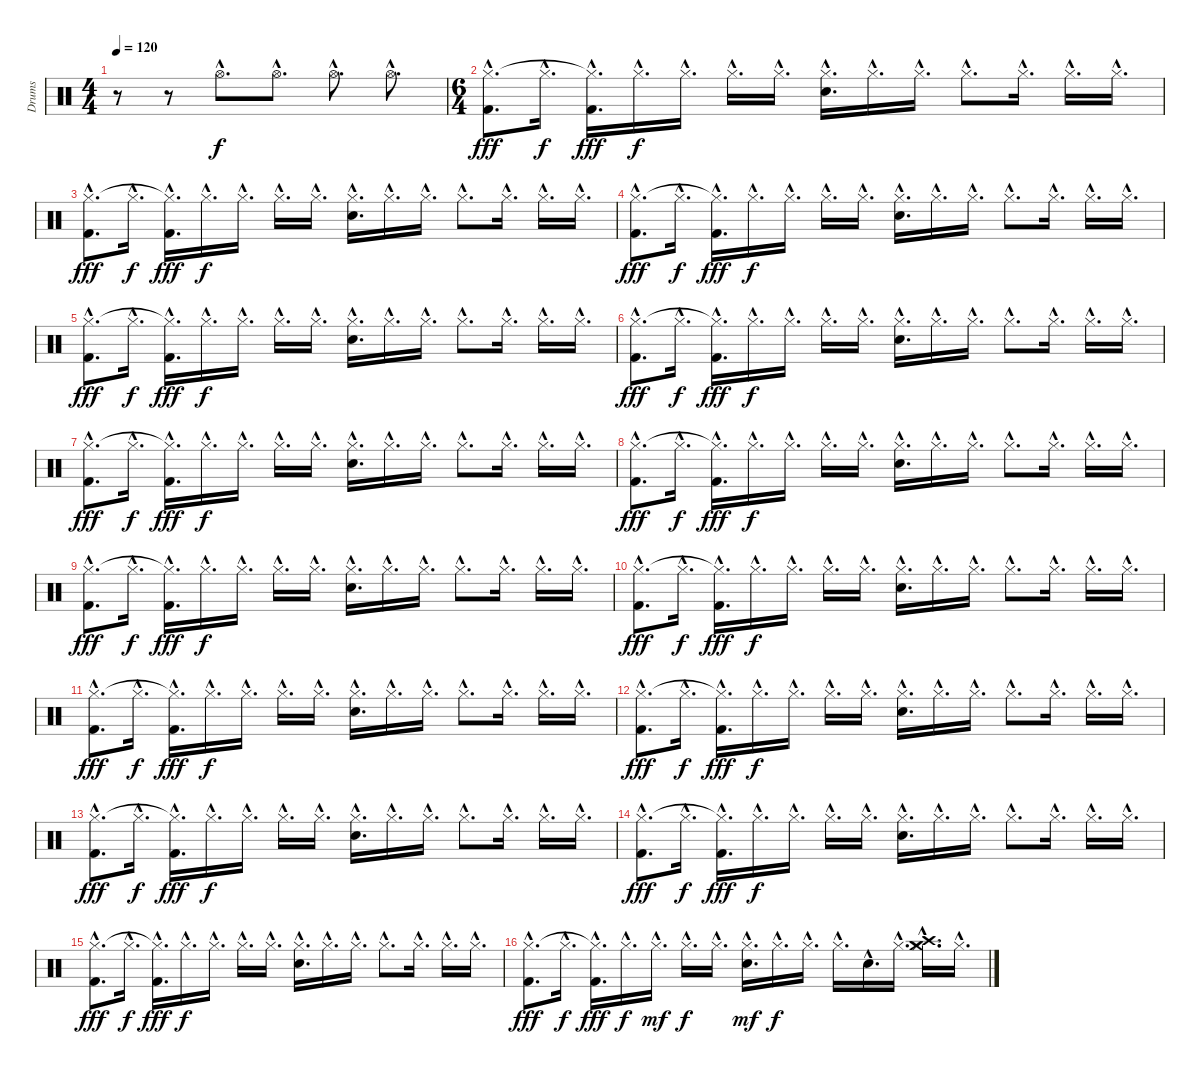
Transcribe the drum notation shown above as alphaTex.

\track ("Drums" "Drums") {instrument percussion}
\staff {score}
\articulation defaults
\ts (4 4)
\tempo 120
\clef neutral
\ks c
r.8{dy f} r.8 "Hi-Hat (open)"{hac}.8{d} "Hi-Hat (open)"{hac}.8{d} "Hi-Hat (open)"{hac}.8{d} "Hi-Hat (open)"{hac}.8{d} |
\ts (6 4)
("Kick (hit) 2"{hac} "Hi-Hat (closed)"{hac}).8{d dy fff} "Hi-Hat (closed)"{hac}.16{d dy f} ("Kick (hit) 2"{hac} "Hi-Hat (closed)"{hac t}).16{d dy fff} "Hi-Hat (closed)"{hac}.16{d dy f} "Hi-Hat (closed)"{hac}.16{d} "Hi-Hat (closed)"{hac}.16{d} "Hi-Hat (closed)"{hac}.16{d} ("Electric Snare (hit)"{hac} "Hi-Hat (closed)"{hac}).16{d} "Hi-Hat (closed)"{hac}.16{d} "Hi-Hat (closed)"{hac}.16{d} "Hi-Hat (closed)"{hac}.8{d} "Hi-Hat (closed)"{hac}.16{d} "Hi-Hat (closed)"{hac}.16{d} "Hi-Hat (closed)"{hac}.16{d} |
("Kick (hit) 2"{hac} "Hi-Hat (closed)"{hac}).8{d dy fff} "Hi-Hat (closed)"{hac}.16{d dy f} ("Kick (hit) 2"{hac} "Hi-Hat (closed)"{hac t}).16{d dy fff} "Hi-Hat (closed)"{hac}.16{d dy f} "Hi-Hat (closed)"{hac}.16{d} "Hi-Hat (closed)"{hac}.16{d} "Hi-Hat (closed)"{hac}.16{d} ("Electric Snare (hit)"{hac} "Hi-Hat (closed)"{hac}).16{d} "Hi-Hat (closed)"{hac}.16{d} "Hi-Hat (closed)"{hac}.16{d} "Hi-Hat (closed)"{hac}.8{d} "Hi-Hat (closed)"{hac}.16{d} "Hi-Hat (closed)"{hac}.16{d} "Hi-Hat (closed)"{hac}.16{d} |
("Kick (hit) 2"{hac} "Hi-Hat (closed)"{hac}).8{d dy fff} "Hi-Hat (closed)"{hac}.16{d dy f} ("Kick (hit) 2"{hac} "Hi-Hat (closed)"{hac t}).16{d dy fff} "Hi-Hat (closed)"{hac}.16{d dy f} "Hi-Hat (closed)"{hac}.16{d} "Hi-Hat (closed)"{hac}.16{d} "Hi-Hat (closed)"{hac}.16{d} ("Electric Snare (hit)"{hac} "Hi-Hat (closed)"{hac}).16{d} "Hi-Hat (closed)"{hac}.16{d} "Hi-Hat (closed)"{hac}.16{d} "Hi-Hat (closed)"{hac}.8{d} "Hi-Hat (closed)"{hac}.16{d} "Hi-Hat (closed)"{hac}.16{d} "Hi-Hat (closed)"{hac}.16{d} |
("Kick (hit) 2"{hac} "Hi-Hat (closed)"{hac}).8{d dy fff} "Hi-Hat (closed)"{hac}.16{d dy f} ("Kick (hit) 2"{hac} "Hi-Hat (closed)"{hac t}).16{d dy fff} "Hi-Hat (closed)"{hac}.16{d dy f} "Hi-Hat (closed)"{hac}.16{d} "Hi-Hat (closed)"{hac}.16{d} "Hi-Hat (closed)"{hac}.16{d} ("Electric Snare (hit)"{hac} "Hi-Hat (closed)"{hac}).16{d} "Hi-Hat (closed)"{hac}.16{d} "Hi-Hat (closed)"{hac}.16{d} "Hi-Hat (closed)"{hac}.8{d} "Hi-Hat (closed)"{hac}.16{d} "Hi-Hat (closed)"{hac}.16{d} "Hi-Hat (closed)"{hac}.16{d} |
("Kick (hit) 2"{hac} "Hi-Hat (closed)"{hac}).8{d dy fff} "Hi-Hat (closed)"{hac}.16{d dy f} ("Kick (hit) 2"{hac} "Hi-Hat (closed)"{hac t}).16{d dy fff} "Hi-Hat (closed)"{hac}.16{d dy f} "Hi-Hat (closed)"{hac}.16{d} "Hi-Hat (closed)"{hac}.16{d} "Hi-Hat (closed)"{hac}.16{d} ("Electric Snare (hit)"{hac} "Hi-Hat (closed)"{hac}).16{d} "Hi-Hat (closed)"{hac}.16{d} "Hi-Hat (closed)"{hac}.16{d} "Hi-Hat (closed)"{hac}.8{d} "Hi-Hat (closed)"{hac}.16{d} "Hi-Hat (closed)"{hac}.16{d} "Hi-Hat (closed)"{hac}.16{d} |
("Kick (hit) 2"{hac} "Hi-Hat (closed)"{hac}).8{d dy fff} "Hi-Hat (closed)"{hac}.16{d dy f} ("Kick (hit) 2"{hac} "Hi-Hat (closed)"{hac t}).16{d dy fff} "Hi-Hat (closed)"{hac}.16{d dy f} "Hi-Hat (closed)"{hac}.16{d} "Hi-Hat (closed)"{hac}.16{d} "Hi-Hat (closed)"{hac}.16{d} ("Electric Snare (hit)"{hac} "Hi-Hat (closed)"{hac}).16{d} "Hi-Hat (closed)"{hac}.16{d} "Hi-Hat (closed)"{hac}.16{d} "Hi-Hat (closed)"{hac}.8{d} "Hi-Hat (closed)"{hac}.16{d} "Hi-Hat (closed)"{hac}.16{d} "Hi-Hat (closed)"{hac}.16{d} |
("Kick (hit) 2"{hac} "Hi-Hat (closed)"{hac}).8{d dy fff} "Hi-Hat (closed)"{hac}.16{d dy f} ("Kick (hit) 2"{hac} "Hi-Hat (closed)"{hac t}).16{d dy fff} "Hi-Hat (closed)"{hac}.16{d dy f} "Hi-Hat (closed)"{hac}.16{d} "Hi-Hat (closed)"{hac}.16{d} "Hi-Hat (closed)"{hac}.16{d} ("Electric Snare (hit)"{hac} "Hi-Hat (closed)"{hac}).16{d} "Hi-Hat (closed)"{hac}.16{d} "Hi-Hat (closed)"{hac}.16{d} "Hi-Hat (closed)"{hac}.8{d} "Hi-Hat (closed)"{hac}.16{d} "Hi-Hat (closed)"{hac}.16{d} "Hi-Hat (closed)"{hac}.16{d} |
("Kick (hit) 2"{hac} "Hi-Hat (closed)"{hac}).8{d dy fff} "Hi-Hat (closed)"{hac}.16{d dy f} ("Kick (hit) 2"{hac} "Hi-Hat (closed)"{hac t}).16{d dy fff} "Hi-Hat (closed)"{hac}.16{d dy f} "Hi-Hat (closed)"{hac}.16{d} "Hi-Hat (closed)"{hac}.16{d} "Hi-Hat (closed)"{hac}.16{d} ("Electric Snare (hit)"{hac} "Hi-Hat (closed)"{hac}).16{d} "Hi-Hat (closed)"{hac}.16{d} "Hi-Hat (closed)"{hac}.16{d} "Hi-Hat (closed)"{hac}.8{d} "Hi-Hat (closed)"{hac}.16{d} "Hi-Hat (closed)"{hac}.16{d} "Hi-Hat (closed)"{hac}.16{d} |
("Kick (hit) 2"{hac} "Hi-Hat (closed)"{hac}).8{d dy fff} "Hi-Hat (closed)"{hac}.16{d dy f} ("Kick (hit) 2"{hac} "Hi-Hat (closed)"{hac t}).16{d dy fff} "Hi-Hat (closed)"{hac}.16{d dy f} "Hi-Hat (closed)"{hac}.16{d} "Hi-Hat (closed)"{hac}.16{d} "Hi-Hat (closed)"{hac}.16{d} ("Electric Snare (hit)"{hac} "Hi-Hat (closed)"{hac}).16{d} "Hi-Hat (closed)"{hac}.16{d} "Hi-Hat (closed)"{hac}.16{d} "Hi-Hat (closed)"{hac}.8{d} "Hi-Hat (closed)"{hac}.16{d} "Hi-Hat (closed)"{hac}.16{d} "Hi-Hat (closed)"{hac}.16{d} |
("Kick (hit) 2"{hac} "Hi-Hat (closed)"{hac}).8{d dy fff} "Hi-Hat (closed)"{hac}.16{d dy f} ("Kick (hit) 2"{hac} "Hi-Hat (closed)"{hac t}).16{d dy fff} "Hi-Hat (closed)"{hac}.16{d dy f} "Hi-Hat (closed)"{hac}.16{d} "Hi-Hat (closed)"{hac}.16{d} "Hi-Hat (closed)"{hac}.16{d} ("Electric Snare (hit)"{hac} "Hi-Hat (closed)"{hac}).16{d} "Hi-Hat (closed)"{hac}.16{d} "Hi-Hat (closed)"{hac}.16{d} "Hi-Hat (closed)"{hac}.8{d} "Hi-Hat (closed)"{hac}.16{d} "Hi-Hat (closed)"{hac}.16{d} "Hi-Hat (closed)"{hac}.16{d} |
("Kick (hit) 2"{hac} "Hi-Hat (closed)"{hac}).8{d dy fff} "Hi-Hat (closed)"{hac}.16{d dy f} ("Kick (hit) 2"{hac} "Hi-Hat (closed)"{hac t}).16{d dy fff} "Hi-Hat (closed)"{hac}.16{d dy f} "Hi-Hat (closed)"{hac}.16{d} "Hi-Hat (closed)"{hac}.16{d} "Hi-Hat (closed)"{hac}.16{d} ("Electric Snare (hit)"{hac} "Hi-Hat (closed)"{hac}).16{d} "Hi-Hat (closed)"{hac}.16{d} "Hi-Hat (closed)"{hac}.16{d} "Hi-Hat (closed)"{hac}.8{d} "Hi-Hat (closed)"{hac}.16{d} "Hi-Hat (closed)"{hac}.16{d} "Hi-Hat (closed)"{hac}.16{d} |
("Kick (hit) 2"{hac} "Hi-Hat (closed)"{hac}).8{d dy fff} "Hi-Hat (closed)"{hac}.16{d dy f} ("Kick (hit) 2"{hac} "Hi-Hat (closed)"{hac t}).16{d dy fff} "Hi-Hat (closed)"{hac}.16{d dy f} "Hi-Hat (closed)"{hac}.16{d} "Hi-Hat (closed)"{hac}.16{d} "Hi-Hat (closed)"{hac}.16{d} ("Electric Snare (hit)"{hac} "Hi-Hat (closed)"{hac}).16{d} "Hi-Hat (closed)"{hac}.16{d} "Hi-Hat (closed)"{hac}.16{d} "Hi-Hat (closed)"{hac}.8{d} "Hi-Hat (closed)"{hac}.16{d} "Hi-Hat (closed)"{hac}.16{d} "Hi-Hat (closed)"{hac}.16{d} |
("Kick (hit) 2"{hac} "Hi-Hat (closed)"{hac}).8{d dy fff} "Hi-Hat (closed)"{hac}.16{d dy f} ("Kick (hit) 2"{hac} "Hi-Hat (closed)"{hac t}).16{d dy fff} "Hi-Hat (closed)"{hac}.16{d dy f} "Hi-Hat (closed)"{hac}.16{d} "Hi-Hat (closed)"{hac}.16{d} "Hi-Hat (closed)"{hac}.16{d} ("Electric Snare (hit)"{hac} "Hi-Hat (closed)"{hac}).16{d} "Hi-Hat (closed)"{hac}.16{d} "Hi-Hat (closed)"{hac}.16{d} "Hi-Hat (closed)"{hac}.8{d} "Hi-Hat (closed)"{hac}.16{d} "Hi-Hat (closed)"{hac}.16{d} "Hi-Hat (closed)"{hac}.16{d} |
("Kick (hit) 2"{hac} "Hi-Hat (closed)"{hac}).8{d dy fff} "Hi-Hat (closed)"{hac}.16{d dy f} ("Kick (hit) 2"{hac} "Hi-Hat (closed)"{hac t}).16{d dy fff} "Hi-Hat (closed)"{hac}.16{d dy f} "Hi-Hat (closed)"{hac}.16{d} "Hi-Hat (closed)"{hac}.16{d} "Hi-Hat (closed)"{hac}.16{d} ("Electric Snare (hit)"{hac} "Hi-Hat (closed)"{hac}).16{d} "Hi-Hat (closed)"{hac}.16{d} "Hi-Hat (closed)"{hac}.16{d} "Hi-Hat (closed)"{hac}.8{d} "Hi-Hat (closed)"{hac}.16{d} "Hi-Hat (closed)"{hac}.16{d} "Hi-Hat (closed)"{hac}.16{d} |
("Kick (hit) 2"{hac} "Hi-Hat (closed)"{hac}).8{d dy fff} "Hi-Hat (closed)"{hac}.16{d dy f} ("Kick (hit) 2"{hac} "Hi-Hat (closed)"{hac t}).16{d dy fff} "Hi-Hat (closed)"{hac}.16{d dy f} "Hi-Hat (closed)"{hac}.16{d dy mf} "Hi-Hat (closed)"{hac}.16{d dy f} "Hi-Hat (closed)"{hac}.16{d} ("Electric Snare (hit)"{hac} "Hi-Hat (closed)"{hac}).16{d dy mf} "Hi-Hat (closed)"{hac}.16{d dy f} "Hi-Hat (closed)"{hac}.16{d} "Hi-Hat (closed)"{hac}.16{d} "Electric Snare (hit)"{hac}.16{d} "Hi-Hat (closed)"{hac}.16{d} ("Crash high (hit)"{hac} "Crash medium (hit)"{hac} "Hi-Hat (closed)"{hac}).16{d} "Hi-Hat (closed)"{hac}.16{d}
